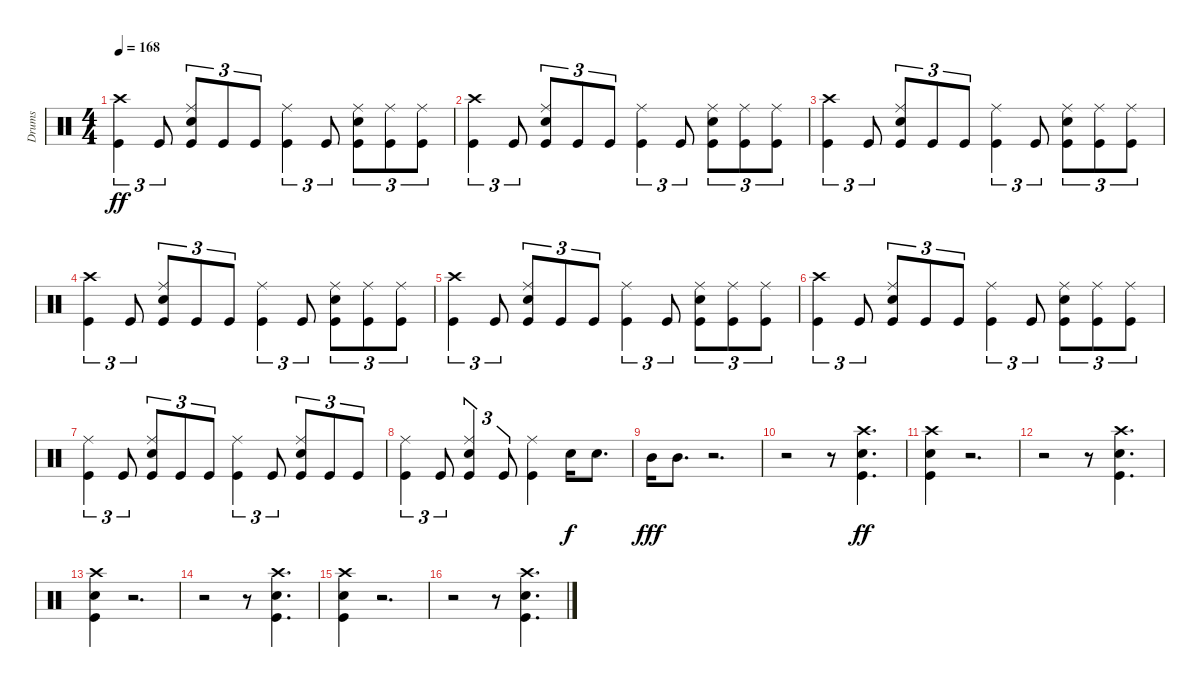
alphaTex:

\track ("Drums" "Drums") {instrument percussion}
\staff {score}
\articulation defaults
\ts (4 4)
\tempo 168
\clef neutral
\ks c
("Crash high (hit)" "Kick (hit)").4{tu (3 2) dy ff} "Kick (hit)".8{tu (3 2)} ("Ride (middle)" "Electric Snare (hit)" "Kick (hit)").8{tu (3 2)} "Kick (hit)".8{tu (3 2)} "Kick (hit)".8{tu (3 2)} ("Ride (middle)" "Kick (hit)").4{tu (3 2)} "Kick (hit)".8{tu (3 2)} ("Ride (middle)" "Electric Snare (hit)" "Kick (hit)").8{tu (3 2)} ("Ride (middle)" "Kick (hit)").8{tu (3 2)} ("Ride (middle)" "Kick (hit)").8{tu (3 2)} |
("Crash high (hit)" "Kick (hit)").4{tu (3 2)} "Kick (hit)".8{tu (3 2)} ("Ride (middle)" "Electric Snare (hit)" "Kick (hit)").8{tu (3 2)} "Kick (hit)".8{tu (3 2)} "Kick (hit)".8{tu (3 2)} ("Ride (middle)" "Kick (hit)").4{tu (3 2)} "Kick (hit)".8{tu (3 2)} ("Ride (middle)" "Electric Snare (hit)" "Kick (hit)").8{tu (3 2)} ("Ride (middle)" "Kick (hit)").8{tu (3 2)} ("Ride (middle)" "Kick (hit)").8{tu (3 2)} |
("Crash high (hit)" "Kick (hit)").4{tu (3 2)} "Kick (hit)".8{tu (3 2)} ("Ride (middle)" "Electric Snare (hit)" "Kick (hit)").8{tu (3 2)} "Kick (hit)".8{tu (3 2)} "Kick (hit)".8{tu (3 2)} ("Ride (middle)" "Kick (hit)").4{tu (3 2)} "Kick (hit)".8{tu (3 2)} ("Ride (middle)" "Electric Snare (hit)" "Kick (hit)").8{tu (3 2)} ("Ride (middle)" "Kick (hit)").8{tu (3 2)} ("Ride (middle)" "Kick (hit)").8{tu (3 2)} |
("Crash high (hit)" "Kick (hit)").4{tu (3 2)} "Kick (hit)".8{tu (3 2)} ("Ride (middle)" "Electric Snare (hit)" "Kick (hit)").8{tu (3 2)} "Kick (hit)".8{tu (3 2)} "Kick (hit)".8{tu (3 2)} ("Ride (middle)" "Kick (hit)").4{tu (3 2)} "Kick (hit)".8{tu (3 2)} ("Ride (middle)" "Electric Snare (hit)" "Kick (hit)").8{tu (3 2)} ("Ride (middle)" "Kick (hit)").8{tu (3 2)} ("Ride (middle)" "Kick (hit)").8{tu (3 2)} |
("Crash high (hit)" "Kick (hit)").4{tu (3 2)} "Kick (hit)".8{tu (3 2)} ("Ride (middle)" "Electric Snare (hit)" "Kick (hit)").8{tu (3 2)} "Kick (hit)".8{tu (3 2)} "Kick (hit)".8{tu (3 2)} ("Ride (middle)" "Kick (hit)").4{tu (3 2)} "Kick (hit)".8{tu (3 2)} ("Ride (middle)" "Electric Snare (hit)" "Kick (hit)").8{tu (3 2)} ("Ride (middle)" "Kick (hit)").8{tu (3 2)} ("Ride (middle)" "Kick (hit)").8{tu (3 2)} |
("Crash high (hit)" "Kick (hit)").4{tu (3 2)} "Kick (hit)".8{tu (3 2)} ("Ride (middle)" "Electric Snare (hit)" "Kick (hit)").8{tu (3 2)} "Kick (hit)".8{tu (3 2)} "Kick (hit)".8{tu (3 2)} ("Ride (middle)" "Kick (hit)").4{tu (3 2)} "Kick (hit)".8{tu (3 2)} ("Ride (middle)" "Electric Snare (hit)" "Kick (hit)").8{tu (3 2)} ("Ride (middle)" "Kick (hit)").8{tu (3 2)} ("Ride (middle)" "Kick (hit)").8{tu (3 2)} |
("Ride (middle)" "Kick (hit)").4{tu (3 2)} "Kick (hit)".8{tu (3 2)} ("Ride (middle)" "Electric Snare (hit)" "Kick (hit)").8{tu (3 2)} "Kick (hit)".8{tu (3 2)} "Kick (hit)".8{tu (3 2)} ("Ride (middle)" "Kick (hit)").4{tu (3 2)} "Kick (hit)".8{tu (3 2)} ("Ride (middle)" "Electric Snare (hit)" "Kick (hit)").8{tu (3 2)} "Kick (hit)".8{tu (3 2)} "Kick (hit)".8{tu (3 2)} |
("Ride (middle)" "Kick (hit)").4{tu (3 2)} "Kick (hit)".8{tu (3 2)} ("Ride (middle)" "Electric Snare (hit)" "Kick (hit)").4{tu (3 2)} "Kick (hit)".8{tu (3 2)} ("Ride (middle)" "Kick (hit)").4 "Electric Snare (hit)".16{dy f} "Electric Snare (hit)".8{d} |
"Mid Tom (hit)".16{dy fff} "Mid Tom (hit)".8{d} r.2{d} |
r.2 r.8 ("Crash high (hit)" "Electric Snare (hit)" "Kick (hit)").4{d dy ff} |
("Crash high (hit)" "Electric Snare (hit)" "Kick (hit)").4 r.2{d} |
r.2 r.8 ("Crash high (hit)" "Electric Snare (hit)" "Kick (hit)").4{d} |
("Crash high (hit)" "Electric Snare (hit)" "Kick (hit)").4 r.2{d} |
r.2 r.8 ("Crash high (hit)" "Electric Snare (hit)" "Kick (hit)").4{d} |
("Crash high (hit)" "Electric Snare (hit)" "Kick (hit)").4 r.2{d} |
r.2 r.8 ("Crash high (hit)" "Electric Snare (hit)" "Kick (hit)").4{d}
